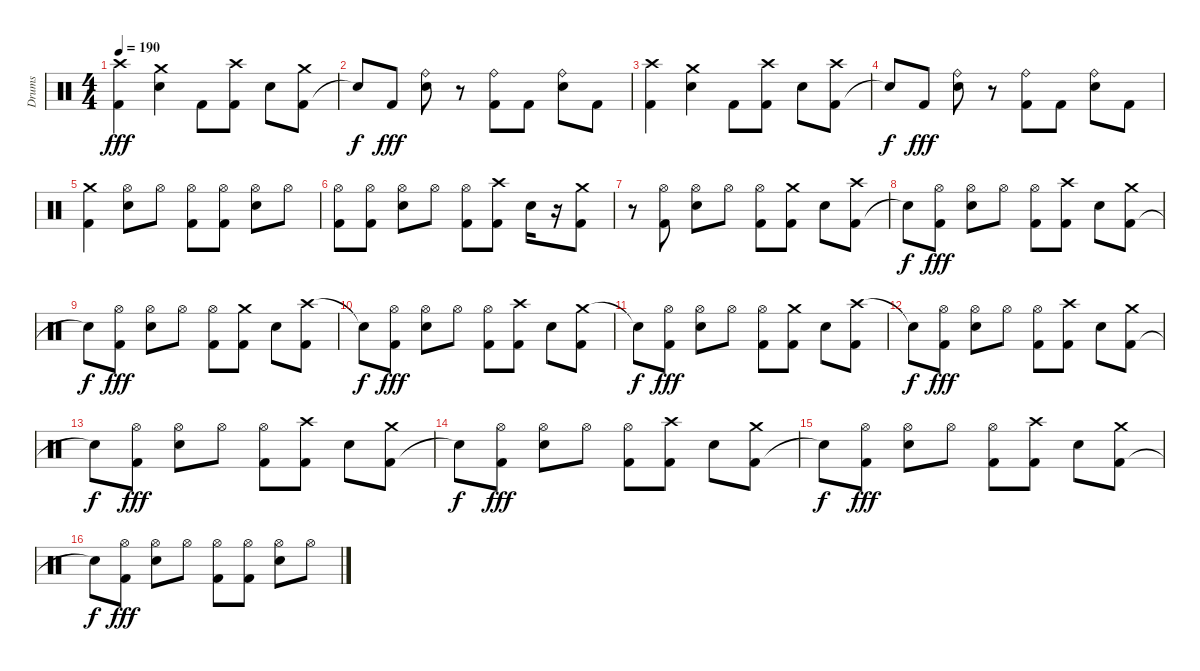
\track ("Drums" "Drums") {instrument percussion}
\staff {score}
\articulation defaults
\ts (4 4)
\tempo 190
\clef neutral
\ks c
("Kick (hit) 2" "Crash high (hit)").4{dy fff} ("Crash medium (hit)" "Electric Snare (hit)").4 "Kick (hit) 2".8 ("Crash high (hit)" "Kick (hit) 2").8 "Electric Snare (hit)".8 ("Kick (hit) 2" "Crash medium (hit)").8 |
"Snare (hit)"{t}.8{dy f} "Kick (hit) 2".8{dy fff} ("Electric Snare (hit)" "Ride (bell)").8 r.8 ("Ride (bell)" "Kick (hit) 2").8 "Kick (hit) 2".8 ("Electric Snare (hit)" "Ride (bell)").8 "Kick (hit) 2".8 |
("Crash high (hit)" "Kick (hit) 2").4 ("Crash medium (hit)" "Electric Snare (hit)").4 "Kick (hit) 2".8 ("Crash high (hit)" "Kick (hit) 2").8 "Electric Snare (hit)".8 ("Kick (hit) 2" "Crash high (hit)").8 |
"Snare (hit)"{t}.8{dy f} "Kick (hit) 2".8{dy fff} ("Electric Snare (hit)" "Ride (bell)").8 r.8 ("Kick (hit) 2" "Ride (bell)").8 "Kick (hit) 2".8 ("Electric Snare (hit)" "Ride (bell)").8 "Kick (hit) 2".8 |
("Crash medium (hit)" "Kick (hit) 2").4 ("Electric Snare (hit)" "Hi-Hat (open)").8 "Hi-Hat (open)".8 ("Kick (hit) 2" "Hi-Hat (open)").8 ("Kick (hit) 2" "Hi-Hat (open)").8 ("Hi-Hat (open)" "Electric Snare (hit)").8 "Hi-Hat (open)".8 |
("Kick (hit) 2" "Hi-Hat (open)").8 ("Hi-Hat (open)" "Kick (hit) 2").8 ("Electric Snare (hit)" "Hi-Hat (open)").8 "Hi-Hat (open)".8 ("Kick (hit) 2" "Hi-Hat (open)").8 ("Crash high (hit)" "Kick (hit) 2").8 "Electric Snare (hit)".16 r.16 ("Kick (hit) 2" "Crash medium (hit)").8 |
r.8 ("Hi-Hat (open)" "Kick (hit) 2").8 ("Hi-Hat (open)" "Electric Snare (hit)").8 "Hi-Hat (open)".8 ("Kick (hit) 2" "Hi-Hat (open)").8 ("Crash medium (hit)" "Kick (hit) 2").8 "Electric Snare (hit)".8 ("Kick (hit) 2" "Crash high (hit)").8 |
"Snare (hit)"{t}.8{dy f} ("Hi-Hat (open)" "Kick (hit) 2").8{dy fff} ("Hi-Hat (open)" "Electric Snare (hit)").8 "Hi-Hat (open)".8 ("Hi-Hat (open)" "Kick (hit) 2").8 ("Kick (hit) 2" "Crash high (hit)").8 "Electric Snare (hit)".8 ("Kick (hit) 2" "Crash medium (hit)").8 |
"Snare (hit)"{t}.8{dy f} ("Hi-Hat (open)" "Kick (hit) 2").8{dy fff} ("Electric Snare (hit)" "Hi-Hat (open)").8 "Hi-Hat (open)".8 ("Hi-Hat (open)" "Kick (hit) 2").8 ("Kick (hit) 2" "Crash medium (hit)").8 "Electric Snare (hit)".8 ("Crash high (hit)" "Kick (hit) 2").8 |
"Snare (hit)"{t}.8{dy f} ("Kick (hit) 2" "Hi-Hat (open)").8{dy fff} ("Hi-Hat (open)" "Electric Snare (hit)").8 "Hi-Hat (open)".8 ("Hi-Hat (open)" "Kick (hit) 2").8 ("Kick (hit) 2" "Crash high (hit)").8 "Electric Snare (hit)".8 ("Crash medium (hit)" "Kick (hit) 2").8 |
"Snare (hit)"{t}.8{dy f} ("Hi-Hat (open)" "Kick (hit) 2").8{dy fff} ("Hi-Hat (open)" "Electric Snare (hit)").8 "Hi-Hat (open)".8 ("Hi-Hat (open)" "Kick (hit) 2").8 ("Crash medium (hit)" "Kick (hit) 2").8 "Electric Snare (hit)".8 ("Crash high (hit)" "Kick (hit) 2").8 |
"Snare (hit)"{t}.8{dy f} ("Hi-Hat (open)" "Kick (hit) 2").8{dy fff} ("Electric Snare (hit)" "Hi-Hat (open)").8 "Hi-Hat (open)".8 ("Hi-Hat (open)" "Kick (hit) 2").8 ("Crash high (hit)" "Kick (hit) 2").8 "Electric Snare (hit)".8 ("Kick (hit) 2" "Crash medium (hit)").8 |
"Snare (hit)"{t}.8{dy f} ("Kick (hit) 2" "Hi-Hat (open)").8{dy fff} ("Electric Snare (hit)" "Hi-Hat (open)").8 "Hi-Hat (open)".8 ("Kick (hit) 2" "Hi-Hat (open)").8 ("Crash high (hit)" "Kick (hit) 2").8 "Electric Snare (hit)".8 ("Kick (hit) 2" "Crash medium (hit)").8 |
"Snare (hit)"{t}.8{dy f} ("Kick (hit) 2" "Hi-Hat (open)").8{dy fff} ("Electric Snare (hit)" "Hi-Hat (open)").8 "Hi-Hat (open)".8 ("Kick (hit) 2" "Hi-Hat (open)").8 ("Crash high (hit)" "Kick (hit) 2").8 "Electric Snare (hit)".8 ("Kick (hit) 2" "Crash medium (hit)").8 |
"Snare (hit)"{t}.8{dy f} ("Kick (hit) 2" "Hi-Hat (open)").8{dy fff} ("Electric Snare (hit)" "Hi-Hat (open)").8 "Hi-Hat (open)".8 ("Kick (hit) 2" "Hi-Hat (open)").8 ("Crash high (hit)" "Kick (hit) 2").8 "Electric Snare (hit)".8 ("Kick (hit) 2" "Crash medium (hit)").8 |
"Snare (hit)"{t}.8{dy f} ("Kick (hit) 2" "Hi-Hat (open)").8{dy fff} ("Electric Snare (hit)" "Hi-Hat (open)").8 "Hi-Hat (open)".8 ("Kick (hit) 2" "Hi-Hat (open)").8 ("Hi-Hat (open)" "Kick (hit) 2").8 ("Hi-Hat (open)" "Electric Snare (hit)").8 "Hi-Hat (open)".8
